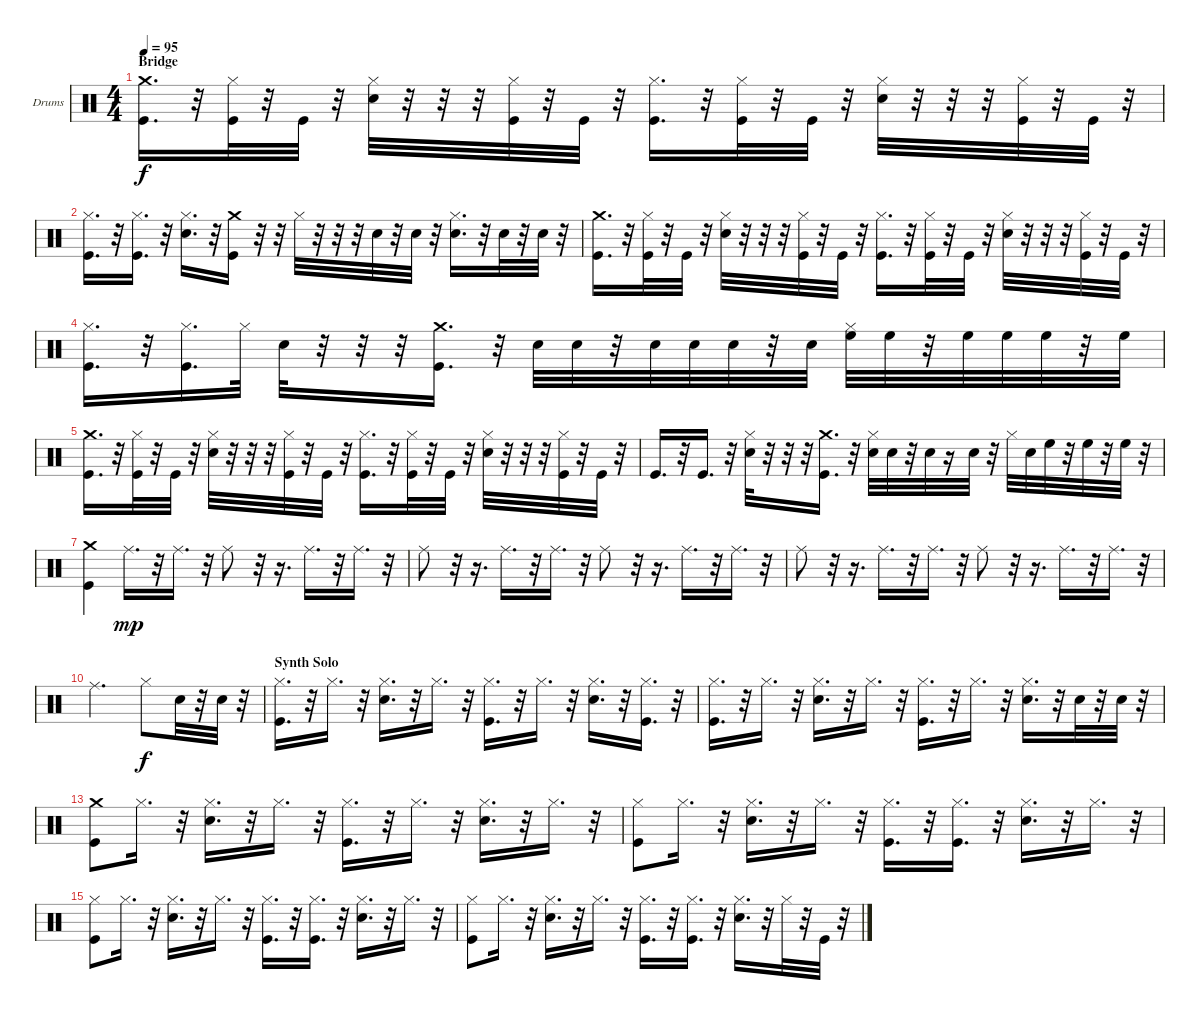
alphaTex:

\bracketExtendMode nobrackets
\firstSystemTrackNameOrientation horizontal
\otherSystemsTrackNameOrientation horizontal
\defaultBarNumberDisplay FirstOfSystem
\track ("Drumkit" "Drums") {instrument percussion}
\staff {score}
\articulation defaults
\ts (4 4)
\section ("" "Bridge")
\tempo 95
\clef neutral
\scale
0.526475
\ks c
("Kick (hit)" "Crash medium (hit)").16{d dy f} r.32 ("Kick (hit)" "Hi-Hat (closed)").32 r.32 "Kick (hit)".32 r.32 ("Hi-Hat (closed)" "Snare (hit) 2").32 r.32 r.32 r.32 ("Kick (hit)" "Hi-Hat (closed)").32 r.32 "Kick (hit)".32 r.32 ("Kick (hit)" "Hi-Hat (closed)").16{d} r.32 ("Kick (hit)" "Hi-Hat (closed)").32 r.32 "Kick (hit)".32 r.32 ("Hi-Hat (closed)" "Snare (hit) 2").32 r.32 r.32 r.32 ("Kick (hit)" "Hi-Hat (closed)").32 r.32 "Kick (hit)".32 r.32 |
\scale
0.473525 ("Hi-Hat (closed)" "Kick (hit)").16{d} r.32 ("Hi-Hat (closed)" "Kick (hit)").16{d} r.32 ("Hi-Hat (closed)" "Snare (hit) 2").16{d} r.32 ("Kick (hit)" "Crash medium (hit)").16 r.32 r.32 "Hi-Hat (closed)".32 r.32 r.32 r.32 "Snare (hit) 2".32 r.32 "Snare (hit) 2".32 r.32 ("Snare (hit) 2" "Hi-Hat (closed)").16{d} r.32 "Snare (hit) 2".32 r.32 "Snare (hit) 2".32 r.32 |
\scale
0.510264 ("Kick (hit)" "Crash medium (hit)").16{d} r.32 ("Kick (hit)" "Hi-Hat (closed)").32 r.32 "Kick (hit)".32 r.32 ("Hi-Hat (closed)" "Snare (hit) 2").32 r.32 r.32 r.32 ("Kick (hit)" "Hi-Hat (closed)").32 r.32 "Kick (hit)".32 r.32 ("Kick (hit)" "Hi-Hat (closed)").16{d} r.32 ("Kick (hit)" "Hi-Hat (closed)").32 r.32 "Kick (hit)".32 r.32 ("Hi-Hat (closed)" "Snare (hit) 2").32 r.32 r.32 r.32 ("Kick (hit)" "Hi-Hat (closed)").32 r.32 "Kick (hit)".32 r.32 |
\scale
0.489736 ("Kick (hit)" "Hi-Hat (closed)").16{d} r.32 ("Kick (hit)" "Hi-Hat (closed)").16{d} "Hi-Hat (closed)".32 "Snare (hit) 2".32 r.32 r.32 r.32 ("Kick (hit)" "Crash medium (hit)").16{d} r.32 "Snare (hit) 2".32 "Snare (hit) 2".32 r.32 "Snare (hit) 2".32 "Snare (hit) 2".32 "Snare (hit) 2".32 r.32 "Snare (hit) 2".32 ("High Floor Tom (hit)" "Hi-Hat (closed)").32 "High Floor Tom (hit)".32 r.32 "High Floor Tom (hit)".32 "High Floor Tom (hit)".32 "High Floor Tom (hit)".32 r.32 "High Floor Tom (hit)".32 |
\scale
0.515556 ("Kick (hit)" "Crash medium (hit)").16{d} r.32 ("Kick (hit)" "Hi-Hat (closed)").32 r.32 "Kick (hit)".32 r.32 ("Hi-Hat (closed)" "Snare (hit) 2").32 r.32 r.32 r.32 ("Kick (hit)" "Hi-Hat (closed)").32 r.32 "Kick (hit)".32 r.32 ("Kick (hit)" "Hi-Hat (closed)").16{d} r.32 ("Kick (hit)" "Hi-Hat (closed)").32 r.32 "Kick (hit)".32 r.32 ("Hi-Hat (closed)" "Snare (hit) 2").32 r.32 r.32 r.32 ("Kick (hit)" "Hi-Hat (closed)").32 r.32 "Kick (hit)".32 r.32 |
\scale
0.484444 "Kick (hit)".16{d} r.32 "Kick (hit)".16{d} r.32 ("Snare (hit) 2" "Hi-Hat (closed)").32 r.32 r.32 r.32 ("Kick (hit)" "Crash medium (hit)").16{d} r.32 ("Snare (hit) 2" "Hi-Hat (closed)").32 "Snare (hit) 2".32 r.32 "Snare (hit) 2".32 r.16 "Snare (hit) 2".32 r.32 "Hi-Hat (closed)".32 "Snare (hit) 2".32 "High Floor Tom (hit)".32 r.32 "High Floor Tom (hit)".32 r.32 "High Floor Tom (hit)".32 r.32 |
\scale
0.477895 ("Crash medium (hit)" "Kick (hit)").4 "Ride (middle)".16{d dy mp} r.32 "Ride (middle)".16{d} r.32 "Ride (middle)".8 r.32 r.16{d} "Ride (middle)".16{d} r.32 "Ride (middle)".16{d} r.32 |
\scale
0.522105 "Ride (middle)".8 r.32 r.16{d} "Ride (middle)".16{d} r.32 "Ride (middle)".16{d} r.32 "Ride (middle)".8 r.32 r.16{d} "Ride (middle)".16{d} r.32 "Ride (middle)".16{d} r.32 |
\scale
0.632653 "Ride (middle)".8 r.32 r.16{d} "Ride (middle)".16{d} r.32 "Ride (middle)".16{d} r.32 "Ride (middle)".8 r.32 r.16{d} "Ride (middle)".16{d} r.32 "Ride (middle)".16{d} r.32 |
\scale
0.367347 "Ride (middle)".2{d} "Hi-Hat (closed)".8{dy f} "Snare (hit) 2".32 r.32 "Snare (hit) 2".32 r.32 |
\section ("" "Synth Solo")
\scale
0.487085 ("Hi-Hat (closed)" "Kick (hit)").16{d} r.32 "Hi-Hat (closed)".16{d} r.32 ("Hi-Hat (closed)" "Snare (hit) 2").16{d} r.32 "Hi-Hat (closed)".16{d} r.32 ("Hi-Hat (closed)" "Kick (hit)").16{d} r.32 "Hi-Hat (closed)".16{d} r.32 ("Hi-Hat (closed)" "Snare (hit) 2").16{d} r.32 ("Hi-Hat (closed)" "Kick (hit)").16{d} r.32 |
\scale
0.512915 ("Hi-Hat (closed)" "Kick (hit)").16{d} r.32 "Hi-Hat (closed)".16{d} r.32 ("Hi-Hat (closed)" "Snare (hit) 2").16{d} r.32 "Hi-Hat (closed)".16{d} r.32 ("Hi-Hat (closed)" "Kick (hit)").16{d} r.32 "Hi-Hat (closed)".16{d} r.32 ("Hi-Hat (closed)" "Snare (hit) 2").16{d} r.32 "Snare (hit) 2".32 r.32 "Snare (hit) 2".32 r.32 |
\scale
0.5 ("Kick (hit)" "Crash medium (hit)").8 "Hi-Hat (closed)".16{d} r.32 ("Hi-Hat (closed)" "Snare (hit) 2").16{d} r.32 "Hi-Hat (closed)".16{d} r.32 ("Hi-Hat (closed)" "Kick (hit)").16{d} r.32 "Hi-Hat (closed)".16{d} r.32 ("Hi-Hat (closed)" "Snare (hit) 2").16{d} r.32 "Hi-Hat (closed)".16{d} r.32 |
\scale
0.5 ("Hi-Hat (closed)" "Kick (hit)").8 "Hi-Hat (closed)".16{d} r.32 ("Hi-Hat (closed)" "Snare (hit) 2").16{d} r.32 "Hi-Hat (closed)".16{d} r.32 ("Hi-Hat (closed)" "Kick (hit)").16{d} r.32 ("Hi-Hat (closed)" "Kick (hit)").16{d} r.32 ("Hi-Hat (closed)" "Snare (hit) 2").16{d} r.32 "Hi-Hat (closed)".16{d} r.32 |
\scale
0.486692 ("Hi-Hat (closed)" "Kick (hit)").8 "Hi-Hat (closed)".16{d} r.32 ("Hi-Hat (closed)" "Snare (hit) 2").16{d} r.32 "Hi-Hat (closed)".16{d} r.32 ("Hi-Hat (closed)" "Kick (hit)").16{d} r.32 ("Hi-Hat (closed)" "Kick (hit)").16{d} r.32 ("Hi-Hat (closed)" "Snare (hit) 2").16{d} r.32 "Hi-Hat (closed)".16{d} r.32 |
\scale
0.513308 ("Hi-Hat (closed)" "Kick (hit)").8 "Hi-Hat (closed)".16{d} r.32 ("Hi-Hat (closed)" "Snare (hit) 2").16{d} r.32 "Hi-Hat (closed)".16{d} r.32 ("Hi-Hat (closed)" "Kick (hit)").16{d} r.32 ("Hi-Hat (closed)" "Kick (hit)").16{d} r.32 ("Hi-Hat (closed)" "Snare (hit) 2").16{d} r.32 "Hi-Hat (closed)".32 r.32 "Kick (hit)".32 r.32
